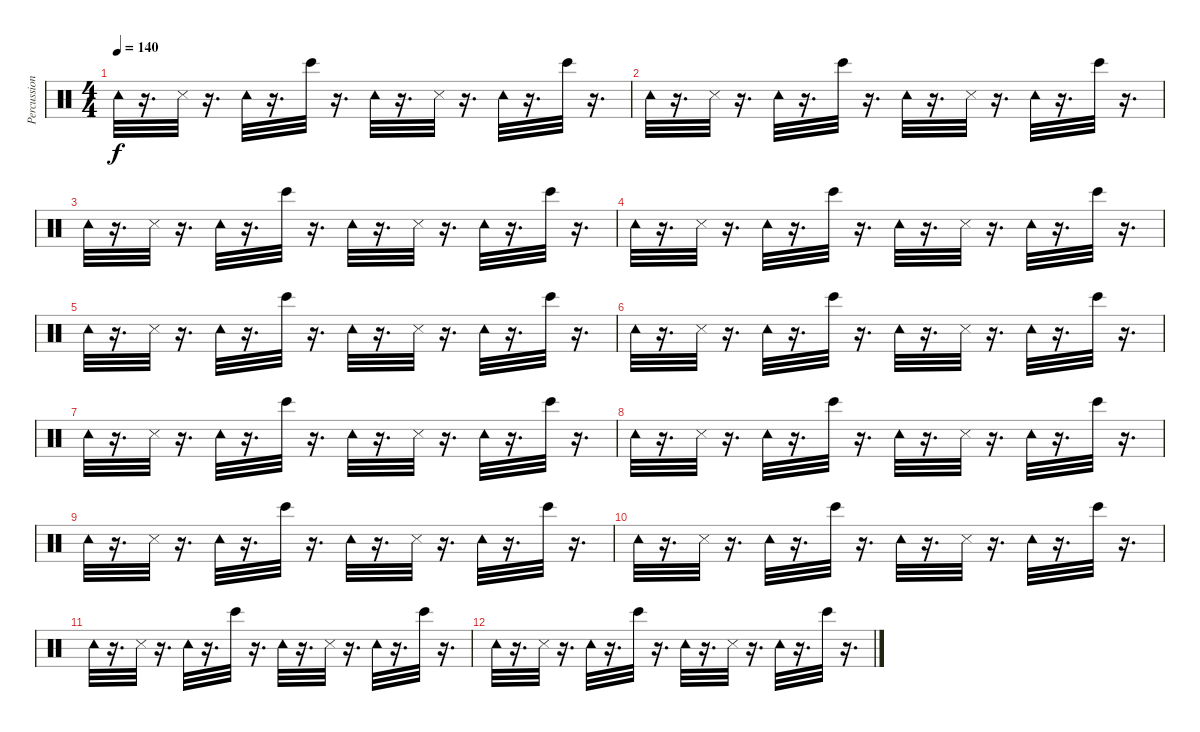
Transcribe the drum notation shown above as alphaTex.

\track ("Percussion" "Percussion") {instrument percussion}
\staff {score}
\articulation defaults
\ts (4 4)
\tempo 140
\clef neutral
\ks c "Tambourine (hit)".32{dy f}
r.16{d} "Metronome (hit)".32 r.16{d} "Tambourine (hit)".32 r.16{d} "Bongo High (hit)".32 r.16{d} "Tambourine (hit)".32 r.16{d} "Metronome (hit)".32 r.16{d} "Tambourine (hit)".32 r.16{d} "Bongo High (hit)".32 r.16{d} |
"Tambourine (hit)".32 r.16{d} "Metronome (hit)".32 r.16{d} "Tambourine (hit)".32 r.16{d} "Bongo High (hit)".32 r.16{d} "Tambourine (hit)".32 r.16{d} "Metronome (hit)".32 r.16{d} "Tambourine (hit)".32 r.16{d} "Bongo High (hit)".32 r.16{d} |
"Tambourine (hit)".32 r.16{d} "Metronome (hit)".32 r.16{d} "Tambourine (hit)".32 r.16{d} "Bongo High (hit)".32 r.16{d} "Tambourine (hit)".32 r.16{d} "Metronome (hit)".32 r.16{d} "Tambourine (hit)".32 r.16{d} "Bongo High (hit)".32 r.16{d} |
"Tambourine (hit)".32 r.16{d} "Metronome (hit)".32 r.16{d} "Tambourine (hit)".32 r.16{d} "Bongo High (hit)".32 r.16{d} "Tambourine (hit)".32 r.16{d} "Metronome (hit)".32 r.16{d} "Tambourine (hit)".32 r.16{d} "Bongo High (hit)".32 r.16{d} |
"Tambourine (hit)".32 r.16{d} "Metronome (hit)".32 r.16{d} "Tambourine (hit)".32 r.16{d} "Bongo High (hit)".32 r.16{d} "Tambourine (hit)".32 r.16{d} "Metronome (hit)".32 r.16{d} "Tambourine (hit)".32 r.16{d} "Bongo High (hit)".32 r.16{d} |
"Tambourine (hit)".32 r.16{d} "Metronome (hit)".32 r.16{d} "Tambourine (hit)".32 r.16{d} "Bongo High (hit)".32 r.16{d} "Tambourine (hit)".32 r.16{d} "Metronome (hit)".32 r.16{d} "Tambourine (hit)".32 r.16{d} "Bongo High (hit)".32 r.16{d} |
"Tambourine (hit)".32 r.16{d} "Metronome (hit)".32 r.16{d} "Tambourine (hit)".32 r.16{d} "Bongo High (hit)".32 r.16{d} "Tambourine (hit)".32 r.16{d} "Metronome (hit)".32 r.16{d} "Tambourine (hit)".32 r.16{d} "Bongo High (hit)".32 r.16{d} |
"Tambourine (hit)".32 r.16{d} "Metronome (hit)".32 r.16{d} "Tambourine (hit)".32 r.16{d} "Bongo High (hit)".32 r.16{d} "Tambourine (hit)".32 r.16{d} "Metronome (hit)".32 r.16{d} "Tambourine (hit)".32 r.16{d} "Bongo High (hit)".32 r.16{d} |
"Tambourine (hit)".32 r.16{d} "Metronome (hit)".32 r.16{d} "Tambourine (hit)".32 r.16{d} "Bongo High (hit)".32 r.16{d} "Tambourine (hit)".32 r.16{d} "Metronome (hit)".32 r.16{d} "Tambourine (hit)".32 r.16{d} "Bongo High (hit)".32 r.16{d} |
"Tambourine (hit)".32 r.16{d} "Metronome (hit)".32 r.16{d} "Tambourine (hit)".32 r.16{d} "Bongo High (hit)".32 r.16{d} "Tambourine (hit)".32 r.16{d} "Metronome (hit)".32 r.16{d} "Tambourine (hit)".32 r.16{d} "Bongo High (hit)".32 r.16{d} |
"Tambourine (hit)".32 r.16{d} "Metronome (hit)".32 r.16{d} "Tambourine (hit)".32 r.16{d} "Bongo High (hit)".32 r.16{d} "Tambourine (hit)".32 r.16{d} "Metronome (hit)".32 r.16{d} "Tambourine (hit)".32 r.16{d} "Bongo High (hit)".32 r.16{d} |
"Tambourine (hit)".32 r.16{d} "Metronome (hit)".32 r.16{d} "Tambourine (hit)".32 r.16{d} "Bongo High (hit)".32 r.16{d} "Tambourine (hit)".32 r.16{d} "Metronome (hit)".32 r.16{d} "Tambourine (hit)".32 r.16{d} "Bongo High (hit)".32 r.16{d}
